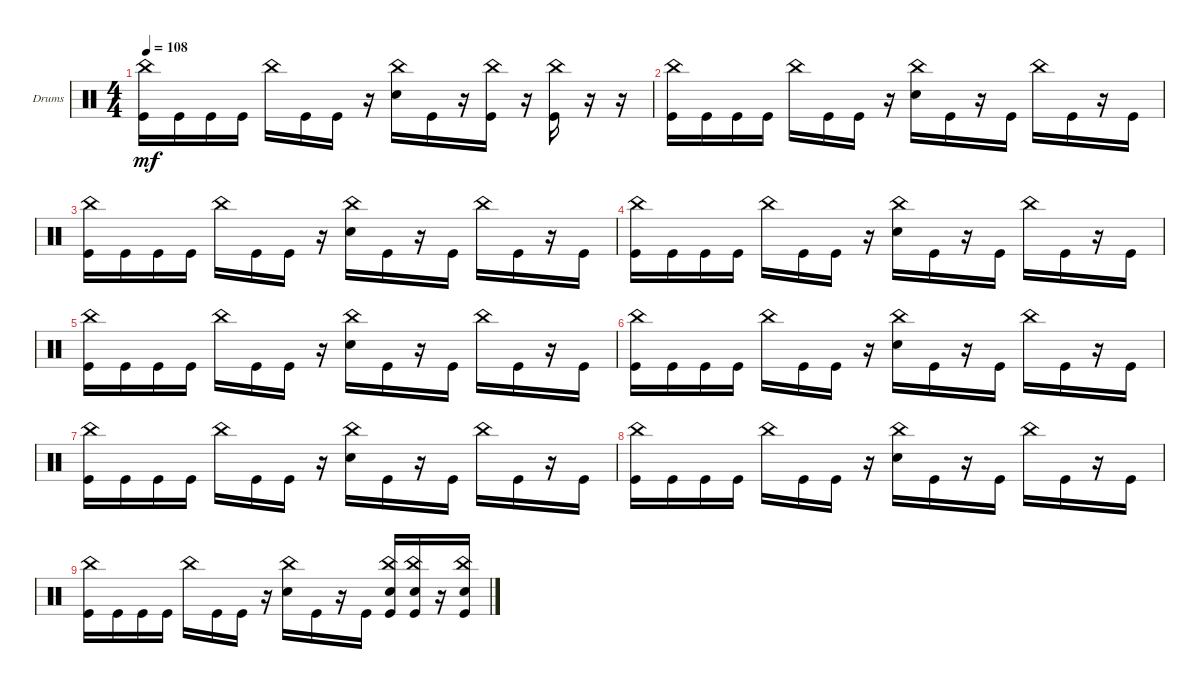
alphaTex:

\defaultSystemsLayout 4
\bracketExtendMode groupsimilarinstruments
\firstSystemTrackNameOrientation horizontal
\otherSystemsTrackNameOrientation horizontal
\track ("Drumkit" "Drums") {instrument percussion}
\staff {score}
\articulation defaults
\ts (4 4)
\tempo 108
\clef neutral
\ks c
("Kick (hit)" "China (hit)").16{dy mf} "Kick (hit)".16 "Kick (hit)".16 "Kick (hit)".16 "China (hit)".16 "Kick (hit)".16 "Kick (hit)".16 r.16 ("China (hit)" "Snare (hit) 2").16 "Kick (hit)".16 r.16 ("Kick (hit)" "China (hit)").16 r.16 ("Kick (hit)" "China (hit)").16 r.16 r.16 |
("Kick (hit)" "China (hit)").16 "Kick (hit)".16 "Kick (hit)".16 "Kick (hit)".16 "China (hit)".16 "Kick (hit)".16 "Kick (hit)".16 r.16 ("China (hit)" "Snare (hit) 2").16 "Kick (hit)".16 r.16 "Kick (hit)".16 "China (hit)".16 "Kick (hit)".16 r.16 "Kick (hit)".16 |
("Kick (hit)" "China (hit)").16 "Kick (hit)".16 "Kick (hit)".16 "Kick (hit)".16 "China (hit)".16 "Kick (hit)".16 "Kick (hit)".16 r.16 ("China (hit)" "Snare (hit) 2").16 "Kick (hit)".16 r.16 "Kick (hit)".16 "China (hit)".16 "Kick (hit)".16 r.16 "Kick (hit)".16 |
("Kick (hit)" "China (hit)").16 "Kick (hit)".16 "Kick (hit)".16 "Kick (hit)".16 "China (hit)".16 "Kick (hit)".16 "Kick (hit)".16 r.16 ("China (hit)" "Snare (hit) 2").16 "Kick (hit)".16 r.16 "Kick (hit)".16 "China (hit)".16 "Kick (hit)".16 r.16 "Kick (hit)".16 |
("Kick (hit)" "China (hit)").16 "Kick (hit)".16 "Kick (hit)".16 "Kick (hit)".16 "China (hit)".16 "Kick (hit)".16 "Kick (hit)".16 r.16 ("China (hit)" "Snare (hit) 2").16 "Kick (hit)".16 r.16 "Kick (hit)".16 "China (hit)".16 "Kick (hit)".16 r.16 "Kick (hit)".16 |
("Kick (hit)" "China (hit)").16 "Kick (hit)".16 "Kick (hit)".16 "Kick (hit)".16 "China (hit)".16 "Kick (hit)".16 "Kick (hit)".16 r.16 ("China (hit)" "Snare (hit) 2").16 "Kick (hit)".16 r.16 "Kick (hit)".16 "China (hit)".16 "Kick (hit)".16 r.16 "Kick (hit)".16 |
("Kick (hit)" "China (hit)").16 "Kick (hit)".16 "Kick (hit)".16 "Kick (hit)".16 "China (hit)".16 "Kick (hit)".16 "Kick (hit)".16 r.16 ("China (hit)" "Snare (hit) 2").16 "Kick (hit)".16 r.16 "Kick (hit)".16 "China (hit)".16 "Kick (hit)".16 r.16 "Kick (hit)".16 |
("Kick (hit)" "China (hit)").16 "Kick (hit)".16 "Kick (hit)".16 "Kick (hit)".16 "China (hit)".16 "Kick (hit)".16 "Kick (hit)".16 r.16 ("China (hit)" "Snare (hit) 2").16 "Kick (hit)".16 r.16 "Kick (hit)".16 "China (hit)".16 "Kick (hit)".16 r.16 "Kick (hit)".16 |
("Kick (hit)" "China (hit)").16 "Kick (hit)".16 "Kick (hit)".16 "Kick (hit)".16 "China (hit)".16 "Kick (hit)".16 "Kick (hit)".16 r.16 ("China (hit)" "Snare (hit) 2").16 "Kick (hit)".16 r.16 "Kick (hit)".16 ("China (hit)" "Snare (hit) 2" "Kick (hit)").16 ("Kick (hit)" "China (hit)" "Snare (hit) 2").16 r.16 ("Kick (hit)" "China (hit)" "Snare (hit) 2").16
